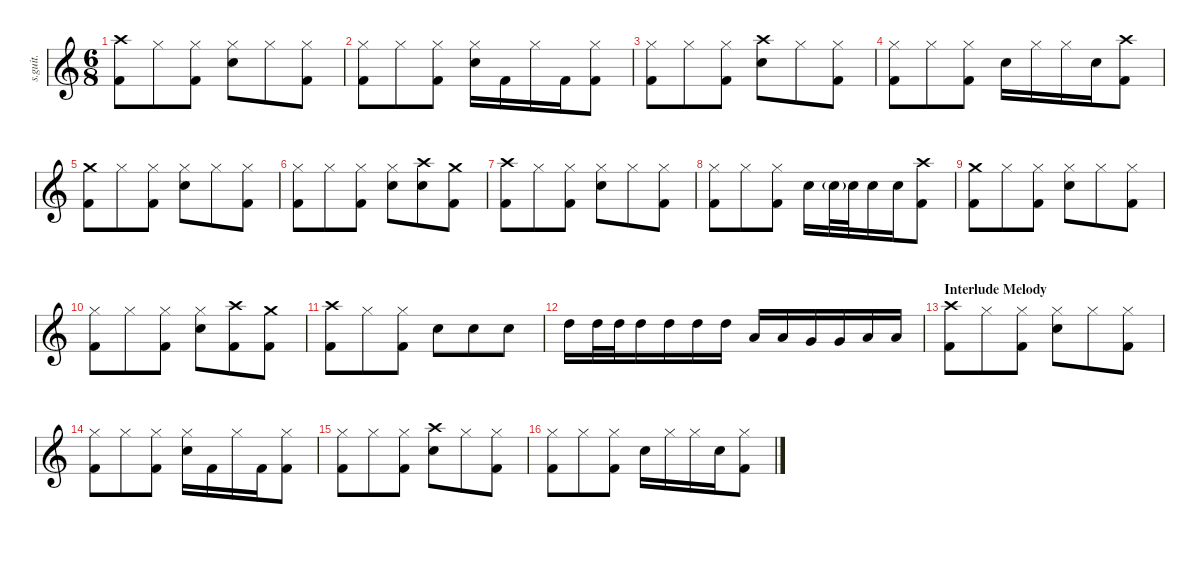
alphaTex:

\defaultSystemsLayout 4
\hideDynamics
\bracketExtendMode nobrackets
\track ("Drumkit" "s.guit.") {instrument percussion}
\staff {score}
\articulation defaults
\ts (6 8)
\tempo (78 hide)
\clef g2
\ks c
("Crash high (hit)" "Kick (hit) 2").8{lyrics (0 "") lyrics (1 "") lyrics (2 "") lyrics (3 "") lyrics (4 "") dy f} "Hi-Hat (closed)".8{lyrics (0 "") lyrics (1 "") lyrics (2 "") lyrics (3 "") lyrics (4 "")} ("Hi-Hat (closed)" "Kick (hit) 2").8{lyrics (0 "") lyrics (1 "") lyrics (2 "") lyrics (3 "") lyrics (4 "")} ("Hi-Hat (closed)" "Snare (hit) 2").8{lyrics (0 "") lyrics (1 "") lyrics (2 "") lyrics (3 "") lyrics (4 "") dy mf} "Hi-Hat (closed)".8{lyrics (0 "") lyrics (1 "") lyrics (2 "") lyrics (3 "") lyrics (4 "") dy f} ("Hi-Hat (closed)" "Kick (hit) 2").8{lyrics (0 "") lyrics (1 "") lyrics (2 "") lyrics (3 "") lyrics (4 "")} |
("Hi-Hat (closed)" "Kick (hit) 2").8{lyrics (0 "") lyrics (1 "") lyrics (2 "") lyrics (3 "") lyrics (4 "")} "Hi-Hat (closed)".8{lyrics (0 "") lyrics (1 "") lyrics (2 "") lyrics (3 "") lyrics (4 "")} ("Hi-Hat (closed)" "Kick (hit) 2").8{lyrics (0 "") lyrics (1 "") lyrics (2 "") lyrics (3 "") lyrics (4 "")} ("Hi-Hat (closed)" "Snare (hit) 2").16{lyrics (0 "") lyrics (1 "") lyrics (2 "") lyrics (3 "") lyrics (4 "")} "Kick (hit) 2".16{lyrics (0 "") lyrics (1 "") lyrics (2 "") lyrics (3 "") lyrics (4 "")} "Hi-Hat (closed)".16{lyrics (0 "") lyrics (1 "") lyrics (2 "") lyrics (3 "") lyrics (4 "")} "Kick (hit) 2".16{lyrics (0 "") lyrics (1 "") lyrics (2 "") lyrics (3 "") lyrics (4 "")} ("Hi-Hat (closed)" "Kick (hit) 2").8{lyrics (0 "") lyrics (1 "") lyrics (2 "") lyrics (3 "") lyrics (4 "")} |
("Hi-Hat (closed)" "Kick (hit) 2").8{lyrics (0 "") lyrics (1 "") lyrics (2 "") lyrics (3 "") lyrics (4 "")} "Hi-Hat (closed)".8{lyrics (0 "") lyrics (1 "") lyrics (2 "") lyrics (3 "") lyrics (4 "")} ("Hi-Hat (closed)" "Kick (hit) 2").8{lyrics (0 "") lyrics (1 "") lyrics (2 "") lyrics (3 "") lyrics (4 "")} ("Crash high (hit)" "Snare (hit) 2").8{lyrics (0 "") lyrics (1 "") lyrics (2 "") lyrics (3 "") lyrics (4 "")} "Hi-Hat (closed)".8{lyrics (0 "") lyrics (1 "") lyrics (2 "") lyrics (3 "") lyrics (4 "")} ("Hi-Hat (closed)" "Kick (hit) 2").8{lyrics (0 "") lyrics (1 "") lyrics (2 "") lyrics (3 "") lyrics (4 "")} |
("Hi-Hat (closed)" "Kick (hit) 2").8{lyrics (0 "") lyrics (1 "") lyrics (2 "") lyrics (3 "") lyrics (4 "")} "Hi-Hat (closed)".8{lyrics (0 "") lyrics (1 "") lyrics (2 "") lyrics (3 "") lyrics (4 "")} ("Hi-Hat (closed)" "Kick (hit) 2").8{lyrics (0 "") lyrics (1 "") lyrics (2 "") lyrics (3 "") lyrics (4 "")} "Snare (hit) 2".16{lyrics (0 "") lyrics (1 "") lyrics (2 "") lyrics (3 "") lyrics (4 "")} "Hi-Hat (closed)".16{lyrics (0 "") lyrics (1 "") lyrics (2 "") lyrics (3 "") lyrics (4 "")} "Hi-Hat (closed)".16{lyrics (0 "") lyrics (1 "") lyrics (2 "") lyrics (3 "") lyrics (4 "")} "Snare (hit) 2".16{lyrics (0 "") lyrics (1 "") lyrics (2 "") lyrics (3 "") lyrics (4 "")} ("Crash high (hit)" "Kick (hit) 2").8{lyrics (0 "") lyrics (1 "") lyrics (2 "") lyrics (3 "") lyrics (4 "")} |
("Crash medium (hit)" "Kick (hit) 2").8{lyrics (0 "") lyrics (1 "") lyrics (2 "") lyrics (3 "") lyrics (4 "")} "Hi-Hat (closed)".8{lyrics (0 "") lyrics (1 "") lyrics (2 "") lyrics (3 "") lyrics (4 "")} ("Hi-Hat (closed)" "Kick (hit) 2").8{lyrics (0 "") lyrics (1 "") lyrics (2 "") lyrics (3 "") lyrics (4 "")} ("Hi-Hat (closed)" "Snare (hit) 2").8{lyrics (0 "") lyrics (1 "") lyrics (2 "") lyrics (3 "") lyrics (4 "")} "Hi-Hat (closed)".8{lyrics (0 "") lyrics (1 "") lyrics (2 "") lyrics (3 "") lyrics (4 "")} ("Hi-Hat (closed)" "Kick (hit) 2").8{lyrics (0 "") lyrics (1 "") lyrics (2 "") lyrics (3 "") lyrics (4 "")} |
("Hi-Hat (closed)" "Kick (hit) 2").8{lyrics (0 "") lyrics (1 "") lyrics (2 "") lyrics (3 "") lyrics (4 "")} "Hi-Hat (closed)".8{lyrics (0 "") lyrics (1 "") lyrics (2 "") lyrics (3 "") lyrics (4 "")} ("Hi-Hat (closed)" "Kick (hit) 2").8{lyrics (0 "") lyrics (1 "") lyrics (2 "") lyrics (3 "") lyrics (4 "")} ("Hi-Hat (closed)" "Snare (hit) 2").8{lyrics (0 "") lyrics (1 "") lyrics (2 "") lyrics (3 "") lyrics (4 "")} ("Crash high (hit)" "Snare (hit) 2").8{lyrics (0 "") lyrics (1 "") lyrics (2 "") lyrics (3 "") lyrics (4 "")} ("Crash medium (hit)" "Kick (hit) 2").8{lyrics (0 "") lyrics (1 "") lyrics (2 "") lyrics (3 "") lyrics (4 "")} |
("Crash high (hit)" "Kick (hit) 2").8{lyrics (0 "") lyrics (1 "") lyrics (2 "") lyrics (3 "") lyrics (4 "")} "Hi-Hat (closed)".8{lyrics (0 "") lyrics (1 "") lyrics (2 "") lyrics (3 "") lyrics (4 "")} ("Hi-Hat (closed)" "Kick (hit) 2").8{lyrics (0 "") lyrics (1 "") lyrics (2 "") lyrics (3 "") lyrics (4 "")} ("Hi-Hat (closed)" "Snare (hit) 2").8{lyrics (0 "") lyrics (1 "") lyrics (2 "") lyrics (3 "") lyrics (4 "")} "Hi-Hat (closed)".8{lyrics (0 "") lyrics (1 "") lyrics (2 "") lyrics (3 "") lyrics (4 "")} ("Hi-Hat (closed)" "Kick (hit) 2").8{lyrics (0 "") lyrics (1 "") lyrics (2 "") lyrics (3 "") lyrics (4 "")} |
("Hi-Hat (closed)" "Kick (hit) 2").8{lyrics (0 "") lyrics (1 "") lyrics (2 "") lyrics (3 "") lyrics (4 "")} "Hi-Hat (closed)".8{lyrics (0 "") lyrics (1 "") lyrics (2 "") lyrics (3 "") lyrics (4 "")} ("Hi-Hat (closed)" "Kick (hit) 2").8{lyrics (0 "") lyrics (1 "") lyrics (2 "") lyrics (3 "") lyrics (4 "")} "Snare (hit) 2".16{lyrics (0 "") lyrics (1 "") lyrics (2 "") lyrics (3 "") lyrics (4 "")} "Snare (hit) 2"{g}.32{lyrics (0 "") lyrics (1 "") lyrics (2 "") lyrics (3 "") lyrics (4 "") dy fff} "Snare (hit) 2".32{lyrics (0 "") lyrics (1 "") lyrics (2 "") lyrics (3 "") lyrics (4 "") dy f} "Snare (hit) 2".16{lyrics (0 "") lyrics (1 "") lyrics (2 "") lyrics (3 "") lyrics (4 "")} "Snare (hit) 2".16{lyrics (0 "") lyrics (1 "") lyrics (2 "") lyrics (3 "") lyrics (4 "")} ("Crash high (hit)" "Kick (hit) 2").8{lyrics (0 "") lyrics (1 "") lyrics (2 "") lyrics (3 "") lyrics (4 "")} |
("Crash medium (hit)" "Kick (hit) 2").8{lyrics (0 "") lyrics (1 "") lyrics (2 "") lyrics (3 "") lyrics (4 "")} "Hi-Hat (closed)".8{lyrics (0 "") lyrics (1 "") lyrics (2 "") lyrics (3 "") lyrics (4 "")} ("Hi-Hat (closed)" "Kick (hit) 2").8{lyrics (0 "") lyrics (1 "") lyrics (2 "") lyrics (3 "") lyrics (4 "")} ("Hi-Hat (closed)" "Snare (hit) 2").8{lyrics (0 "") lyrics (1 "") lyrics (2 "") lyrics (3 "") lyrics (4 "")} "Hi-Hat (closed)".8{lyrics (0 "") lyrics (1 "") lyrics (2 "") lyrics (3 "") lyrics (4 "")} ("Hi-Hat (closed)" "Kick (hit) 2").8{lyrics (0 "") lyrics (1 "") lyrics (2 "") lyrics (3 "") lyrics (4 "")} |
("Hi-Hat (closed)" "Kick (hit) 2").8{lyrics (0 "") lyrics (1 "") lyrics (2 "") lyrics (3 "") lyrics (4 "")} "Hi-Hat (closed)".8{lyrics (0 "") lyrics (1 "") lyrics (2 "") lyrics (3 "") lyrics (4 "")} ("Hi-Hat (closed)" "Kick (hit) 2").8{lyrics (0 "") lyrics (1 "") lyrics (2 "") lyrics (3 "") lyrics (4 "")} ("Hi-Hat (closed)" "Snare (hit) 2").8{lyrics (0 "") lyrics (1 "") lyrics (2 "") lyrics (3 "") lyrics (4 "")} ("Crash high (hit)" "Kick (hit) 2").8{lyrics (0 "") lyrics (1 "") lyrics (2 "") lyrics (3 "") lyrics (4 "")} ("Crash medium (hit)" "Kick (hit) 2").8{lyrics (0 "") lyrics (1 "") lyrics (2 "") lyrics (3 "") lyrics (4 "")} |
("Crash high (hit)" "Kick (hit) 2").8{lyrics (0 "") lyrics (1 "") lyrics (2 "") lyrics (3 "") lyrics (4 "")} "Hi-Hat (closed)".8{lyrics (0 "") lyrics (1 "") lyrics (2 "") lyrics (3 "") lyrics (4 "")} ("Hi-Hat (closed)" "Kick (hit) 2").8{lyrics (0 "") lyrics (1 "") lyrics (2 "") lyrics (3 "") lyrics (4 "")} "Snare (hit) 2".8{lyrics (0 "") lyrics (1 "") lyrics (2 "") lyrics (3 "") lyrics (4 "")} "Snare (hit) 2".8{lyrics (0 "") lyrics (1 "") lyrics (2 "") lyrics (3 "") lyrics (4 "")} "Snare (hit) 2".8{lyrics (0 "") lyrics (1 "") lyrics (2 "") lyrics (3 "") lyrics (4 "")} |
"High Tom (hit)".16{lyrics (0 "") lyrics (1 "") lyrics (2 "") lyrics (3 "") lyrics (4 "")} "High Tom (hit)".32{lyrics (0 "") lyrics (1 "") lyrics (2 "") lyrics (3 "") lyrics (4 "")} "High Tom (hit)".32{lyrics (0 "") lyrics (1 "") lyrics (2 "") lyrics (3 "") lyrics (4 "")} "High Tom (hit)".16{lyrics (0 "") lyrics (1 "") lyrics (2 "") lyrics (3 "") lyrics (4 "")} "High Tom (hit)".16{lyrics (0 "") lyrics (1 "") lyrics (2 "") lyrics (3 "") lyrics (4 "")} "High Tom (hit)".16{lyrics (0 "") lyrics (1 "") lyrics (2 "") lyrics (3 "") lyrics (4 "")} "High Tom (hit)".16{lyrics (0 "") lyrics (1 "") lyrics (2 "") lyrics (3 "") lyrics (4 "")} "Low Tom (hit)".16{lyrics (0 "") lyrics (1 "") lyrics (2 "") lyrics (3 "") lyrics (4 "")} "Low Tom (hit)".16{lyrics (0 "") lyrics (1 "") lyrics (2 "") lyrics (3 "") lyrics (4 "")} "Very Low Tom (hit)".16{lyrics (0 "") lyrics (1 "") lyrics (2 "") lyrics (3 "") lyrics (4 "")} "Very Low Tom (hit)".16{lyrics (0 "") lyrics (1 "") lyrics (2 "") lyrics (3 "") lyrics (4 "")} "Low Floor Tom (hit)".16{lyrics (0 "") lyrics (1 "") lyrics (2 "") lyrics (3 "") lyrics (4 "")} "Low Floor Tom (hit)".16{lyrics (0 "") lyrics (1 "") lyrics (2 "") lyrics (3 "") lyrics (4 "")} |
\section ("" "Interlude Melody")
("Crash high (hit)" "Kick (hit) 2").8{lyrics (0 "") lyrics (1 "") lyrics (2 "") lyrics (3 "") lyrics (4 "")} "Hi-Hat (closed)".8{lyrics (0 "") lyrics (1 "") lyrics (2 "") lyrics (3 "") lyrics (4 "")} ("Hi-Hat (closed)" "Kick (hit) 2").8{lyrics (0 "") lyrics (1 "") lyrics (2 "") lyrics (3 "") lyrics (4 "")} ("Hi-Hat (closed)" "Snare (hit) 2").8{lyrics (0 "") lyrics (1 "") lyrics (2 "") lyrics (3 "") lyrics (4 "")} "Hi-Hat (closed)".8{lyrics (0 "") lyrics (1 "") lyrics (2 "") lyrics (3 "") lyrics (4 "")} ("Hi-Hat (closed)" "Kick (hit) 2").8{lyrics (0 "") lyrics (1 "") lyrics (2 "") lyrics (3 "") lyrics (4 "")} |
("Hi-Hat (closed)" "Kick (hit) 2").8{lyrics (0 "") lyrics (1 "") lyrics (2 "") lyrics (3 "") lyrics (4 "")} "Hi-Hat (closed)".8{lyrics (0 "") lyrics (1 "") lyrics (2 "") lyrics (3 "") lyrics (4 "")} ("Hi-Hat (closed)" "Kick (hit) 2").8{lyrics (0 "") lyrics (1 "") lyrics (2 "") lyrics (3 "") lyrics (4 "")} ("Hi-Hat (closed)" "Snare (hit) 2").16{lyrics (0 "") lyrics (1 "") lyrics (2 "") lyrics (3 "") lyrics (4 "")} "Kick (hit) 2".16{lyrics (0 "") lyrics (1 "") lyrics (2 "") lyrics (3 "") lyrics (4 "")} "Hi-Hat (closed)".16{lyrics (0 "") lyrics (1 "") lyrics (2 "") lyrics (3 "") lyrics (4 "")} "Kick (hit) 2".16{lyrics (0 "") lyrics (1 "") lyrics (2 "") lyrics (3 "") lyrics (4 "")} ("Hi-Hat (closed)" "Kick (hit) 2").8{lyrics (0 "") lyrics (1 "") lyrics (2 "") lyrics (3 "") lyrics (4 "")} |
("Hi-Hat (closed)" "Kick (hit) 2").8{lyrics (0 "") lyrics (1 "") lyrics (2 "") lyrics (3 "") lyrics (4 "")} "Hi-Hat (closed)".8{lyrics (0 "") lyrics (1 "") lyrics (2 "") lyrics (3 "") lyrics (4 "")} ("Hi-Hat (closed)" "Kick (hit) 2").8{lyrics (0 "") lyrics (1 "") lyrics (2 "") lyrics (3 "") lyrics (4 "")} ("Crash high (hit)" "Snare (hit) 2").8{lyrics (0 "") lyrics (1 "") lyrics (2 "") lyrics (3 "") lyrics (4 "")} "Hi-Hat (closed)".8{lyrics (0 "") lyrics (1 "") lyrics (2 "") lyrics (3 "") lyrics (4 "")} ("Hi-Hat (closed)" "Kick (hit) 2").8{lyrics (0 "") lyrics (1 "") lyrics (2 "") lyrics (3 "") lyrics (4 "")} |
("Hi-Hat (closed)" "Kick (hit) 2").8{lyrics (0 "") lyrics (1 "") lyrics (2 "") lyrics (3 "") lyrics (4 "")} "Hi-Hat (closed)".8{lyrics (0 "") lyrics (1 "") lyrics (2 "") lyrics (3 "") lyrics (4 "")} ("Hi-Hat (closed)" "Kick (hit) 2").8{lyrics (0 "") lyrics (1 "") lyrics (2 "") lyrics (3 "") lyrics (4 "")} "Snare (hit) 2".16{lyrics (0 "") lyrics (1 "") lyrics (2 "") lyrics (3 "") lyrics (4 "")} "Hi-Hat (closed)".16{lyrics (0 "") lyrics (1 "") lyrics (2 "") lyrics (3 "") lyrics (4 "")} "Hi-Hat (closed)".16{lyrics (0 "") lyrics (1 "") lyrics (2 "") lyrics (3 "") lyrics (4 "")} "Snare (hit) 2".16{lyrics (0 "") lyrics (1 "") lyrics (2 "") lyrics (3 "") lyrics (4 "")} ("Hi-Hat (closed)" "Kick (hit) 2").8{lyrics (0 "") lyrics (1 "") lyrics (2 "") lyrics (3 "") lyrics (4 "")}
